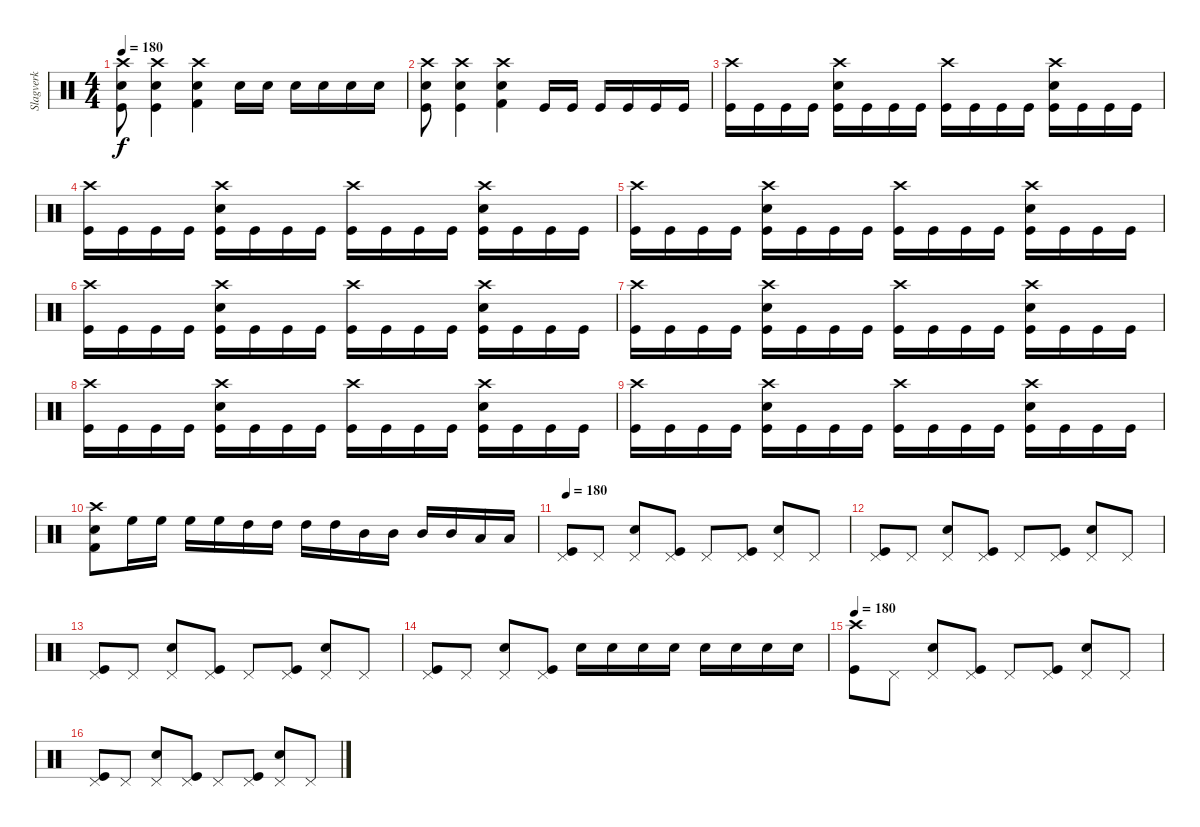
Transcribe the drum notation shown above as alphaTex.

\track ("Slagverk" "Slagverk") {instrument percussion}
\staff {score}
\articulation defaults
\ts (4 4)
\tempo 180
\clef neutral
\ks c
("Crash high (hit)" "Electric Snare (hit)" "Kick (hit)").8{dy f} ("Crash high (hit)" "Electric Snare (hit)" "Kick (hit)").4 ("Electric Snare (hit)" "Kick (hit) 2" "Crash high (hit)").4 "Electric Snare (hit)".16 "Electric Snare (hit)".16 "Electric Snare (hit)".16 "Electric Snare (hit)".16 "Electric Snare (hit)".16 "Electric Snare (hit)".16 |
("Crash high (hit)" "Electric Snare (hit)" "Kick (hit)").8 ("Crash high (hit)" "Electric Snare (hit)" "Kick (hit)").4 ("Electric Snare (hit)" "Kick (hit) 2" "Crash high (hit)").4 "Kick (hit)".16 "Kick (hit)".16 "Kick (hit)".16 "Kick (hit)".16 "Kick (hit)".16 "Kick (hit)".16 |
("Kick (hit)" "Crash high (hit)").16 "Kick (hit)".16 "Kick (hit)".16 "Kick (hit)".16 ("Kick (hit)" "Electric Snare (hit)" "Crash high (hit)").16 "Kick (hit)".16 "Kick (hit)".16 "Kick (hit)".16 ("Kick (hit)" "Crash high (hit)").16 "Kick (hit)".16 "Kick (hit)".16 "Kick (hit)".16 ("Kick (hit)" "Electric Snare (hit)" "Crash high (hit)").16 "Kick (hit)".16 "Kick (hit)".16 "Kick (hit)".16 |
("Kick (hit)" "Crash high (hit)").16 "Kick (hit)".16 "Kick (hit)".16 "Kick (hit)".16 ("Kick (hit)" "Electric Snare (hit)" "Crash high (hit)").16 "Kick (hit)".16 "Kick (hit)".16 "Kick (hit)".16 ("Kick (hit)" "Crash high (hit)").16 "Kick (hit)".16 "Kick (hit)".16 "Kick (hit)".16 ("Kick (hit)" "Electric Snare (hit)" "Crash high (hit)").16 "Kick (hit)".16 "Kick (hit)".16 "Kick (hit)".16 |
("Kick (hit)" "Crash high (hit)").16 "Kick (hit)".16 "Kick (hit)".16 "Kick (hit)".16 ("Kick (hit)" "Electric Snare (hit)" "Crash high (hit)").16 "Kick (hit)".16 "Kick (hit)".16 "Kick (hit)".16 ("Kick (hit)" "Crash high (hit)").16 "Kick (hit)".16 "Kick (hit)".16 "Kick (hit)".16 ("Kick (hit)" "Electric Snare (hit)" "Crash high (hit)").16 "Kick (hit)".16 "Kick (hit)".16 "Kick (hit)".16 |
("Kick (hit)" "Crash high (hit)").16 "Kick (hit)".16 "Kick (hit)".16 "Kick (hit)".16 ("Kick (hit)" "Electric Snare (hit)" "Crash high (hit)").16 "Kick (hit)".16 "Kick (hit)".16 "Kick (hit)".16 ("Kick (hit)" "Crash high (hit)").16 "Kick (hit)".16 "Kick (hit)".16 "Kick (hit)".16 ("Kick (hit)" "Electric Snare (hit)" "Crash high (hit)").16 "Kick (hit)".16 "Kick (hit)".16 "Kick (hit)".16 |
("Kick (hit)" "Crash high (hit)").16 "Kick (hit)".16 "Kick (hit)".16 "Kick (hit)".16 ("Kick (hit)" "Electric Snare (hit)" "Crash high (hit)").16 "Kick (hit)".16 "Kick (hit)".16 "Kick (hit)".16 ("Kick (hit)" "Crash high (hit)").16 "Kick (hit)".16 "Kick (hit)".16 "Kick (hit)".16 ("Kick (hit)" "Electric Snare (hit)" "Crash high (hit)").16 "Kick (hit)".16 "Kick (hit)".16 "Kick (hit)".16 |
("Kick (hit)" "Crash high (hit)").16 "Kick (hit)".16 "Kick (hit)".16 "Kick (hit)".16 ("Kick (hit)" "Electric Snare (hit)" "Crash high (hit)").16 "Kick (hit)".16 "Kick (hit)".16 "Kick (hit)".16 ("Kick (hit)" "Crash high (hit)").16 "Kick (hit)".16 "Kick (hit)".16 "Kick (hit)".16 ("Kick (hit)" "Electric Snare (hit)" "Crash high (hit)").16 "Kick (hit)".16 "Kick (hit)".16 "Kick (hit)".16 |
("Kick (hit)" "Crash high (hit)").16 "Kick (hit)".16 "Kick (hit)".16 "Kick (hit)".16 ("Kick (hit)" "Electric Snare (hit)" "Crash high (hit)").16 "Kick (hit)".16 "Kick (hit)".16 "Kick (hit)".16 ("Kick (hit)" "Crash high (hit)").16 "Kick (hit)".16 "Kick (hit)".16 "Kick (hit)".16 ("Kick (hit)" "Electric Snare (hit)" "Crash high (hit)").16 "Kick (hit)".16 "Kick (hit)".16 "Kick (hit)".16 |
("Crash high (hit)" "Kick (hit) 2" "Electric Snare (hit)").8 "High Floor Tom (hit)".16 "High Floor Tom (hit)".16 "High Floor Tom (hit)".16 "High Floor Tom (hit)".16 "High Tom (hit)".16 "High Tom (hit)".16 "High Tom (hit)".16 "High Tom (hit)".16 "Mid Tom (hit)".16 "Mid Tom (hit)".16 "Mid Tom (hit)".16 "Mid Tom (hit)".16 "Low Tom (hit)".16 "Low Tom (hit)".16 |
\tempo 180
("Pedal Hi-Hat (hit)" "Kick (hit)").8 "Pedal Hi-Hat (hit)".8 ("Pedal Hi-Hat (hit)" "Electric Snare (hit)").8 ("Pedal Hi-Hat (hit)" "Kick (hit)").8 "Pedal Hi-Hat (hit)".8 ("Pedal Hi-Hat (hit)" "Kick (hit)").8 ("Pedal Hi-Hat (hit)" "Electric Snare (hit)").8 "Pedal Hi-Hat (hit)".8 |
("Pedal Hi-Hat (hit)" "Kick (hit)").8 "Pedal Hi-Hat (hit)".8 ("Pedal Hi-Hat (hit)" "Electric Snare (hit)").8 ("Pedal Hi-Hat (hit)" "Kick (hit)").8 "Pedal Hi-Hat (hit)".8 ("Pedal Hi-Hat (hit)" "Kick (hit)").8 ("Pedal Hi-Hat (hit)" "Electric Snare (hit)").8 "Pedal Hi-Hat (hit)".8 |
("Pedal Hi-Hat (hit)" "Kick (hit)").8 "Pedal Hi-Hat (hit)".8 ("Pedal Hi-Hat (hit)" "Electric Snare (hit)").8 ("Pedal Hi-Hat (hit)" "Kick (hit)").8 "Pedal Hi-Hat (hit)".8 ("Pedal Hi-Hat (hit)" "Kick (hit)").8 ("Pedal Hi-Hat (hit)" "Electric Snare (hit)").8 "Pedal Hi-Hat (hit)".8 |
("Pedal Hi-Hat (hit)" "Kick (hit)").8 "Pedal Hi-Hat (hit)".8 ("Pedal Hi-Hat (hit)" "Electric Snare (hit)").8 ("Pedal Hi-Hat (hit)" "Kick (hit)").8 "Electric Snare (hit)".16 "Electric Snare (hit)".16 "Electric Snare (hit)".16 "Electric Snare (hit)".16 "Electric Snare (hit)".16 "Electric Snare (hit)".16 "Electric Snare (hit)".16 "Electric Snare (hit)".16 |
\tempo 180
("Crash high (hit)" "Kick (hit)").8 "Pedal Hi-Hat (hit)".8 ("Pedal Hi-Hat (hit)" "Electric Snare (hit)").8 ("Pedal Hi-Hat (hit)" "Kick (hit)").8 "Pedal Hi-Hat (hit)".8 ("Pedal Hi-Hat (hit)" "Kick (hit)").8 ("Pedal Hi-Hat (hit)" "Electric Snare (hit)").8 "Pedal Hi-Hat (hit)".8 |
("Pedal Hi-Hat (hit)" "Kick (hit)").8 "Pedal Hi-Hat (hit)".8 ("Pedal Hi-Hat (hit)" "Electric Snare (hit)").8 ("Pedal Hi-Hat (hit)" "Kick (hit)").8 "Pedal Hi-Hat (hit)".8 ("Pedal Hi-Hat (hit)" "Kick (hit)").8 ("Pedal Hi-Hat (hit)" "Electric Snare (hit)").8 "Pedal Hi-Hat (hit)".8
